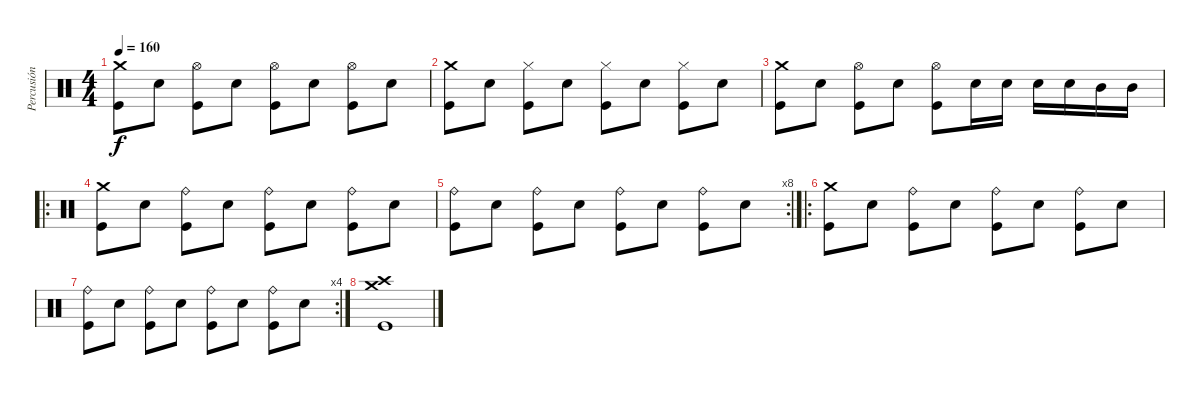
\track ("Percusión" "Percusión") {instrument percussion}
\staff {score}
\articulation defaults
\ts (4 4)
\tempo 160
\clef neutral
\ks c
("Kick (hit)" "Crash medium (hit)").8{dy f} "Snare (hit) 2".8 ("Kick (hit)" "Hi-Hat (open)").8 "Snare (hit) 2".8 ("Kick (hit)" "Hi-Hat (open)").8 "Snare (hit) 2".8 ("Kick (hit)" "Hi-Hat (open)").8 "Snare (hit) 2".8 |
("Kick (hit)" "Crash medium (hit)").8 "Snare (hit) 2".8 ("Kick (hit)" "Hi-Hat (closed)").8 "Snare (hit) 2".8 ("Kick (hit)" "Hi-Hat (closed)").8 "Snare (hit) 2".8 ("Kick (hit)" "Hi-Hat (closed)").8 "Snare (hit) 2".8 |
("Kick (hit)" "Crash medium (hit)").8 "Snare (hit) 2".8 ("Kick (hit)" "Hi-Hat (open)").8 "Snare (hit) 2".8 ("Kick (hit)" "Hi-Hat (open)").8 "Snare (hit) 2".16 "Snare (hit) 2".16 "Snare (hit) 2".16 "Snare (hit) 2".16 "Mid Tom (hit)".16 "Mid Tom (hit)".16 |
\ro
("Kick (hit)" "Crash medium (hit)").8 "Snare (hit) 2".8 ("Kick (hit)" "Ride (bell)").8 "Snare (hit) 2".8 ("Kick (hit)" "Ride (bell)").8 "Snare (hit) 2".8 ("Kick (hit)" "Ride (bell)").8 "Snare (hit) 2".8 |
\rc 8
("Kick (hit)" "Ride (bell)").8 "Snare (hit) 2".8 ("Kick (hit)" "Ride (bell)").8 "Snare (hit) 2".8 ("Kick (hit)" "Ride (bell)").8 "Snare (hit) 2".8 ("Kick (hit)" "Ride (bell)").8 "Snare (hit) 2".8 |
\ro
("Kick (hit)" "Crash medium (hit)").8 "Snare (hit) 2".8 ("Kick (hit)" "Ride (bell)").8 "Snare (hit) 2".8 ("Kick (hit)" "Ride (bell)").8 "Snare (hit) 2".8 ("Kick (hit)" "Ride (bell)").8 "Snare (hit) 2".8 |
\rc 4
("Kick (hit)" "Ride (bell)").8 "Snare (hit) 2".8 ("Kick (hit)" "Ride (bell)").8 "Snare (hit) 2".8 ("Kick (hit)" "Ride (bell)").8 "Snare (hit) 2".8 ("Kick (hit)" "Ride (bell)").8 "Snare (hit) 2".8 |
("Kick (hit)" "Crash high (hit)" "Crash medium (hit)").1
